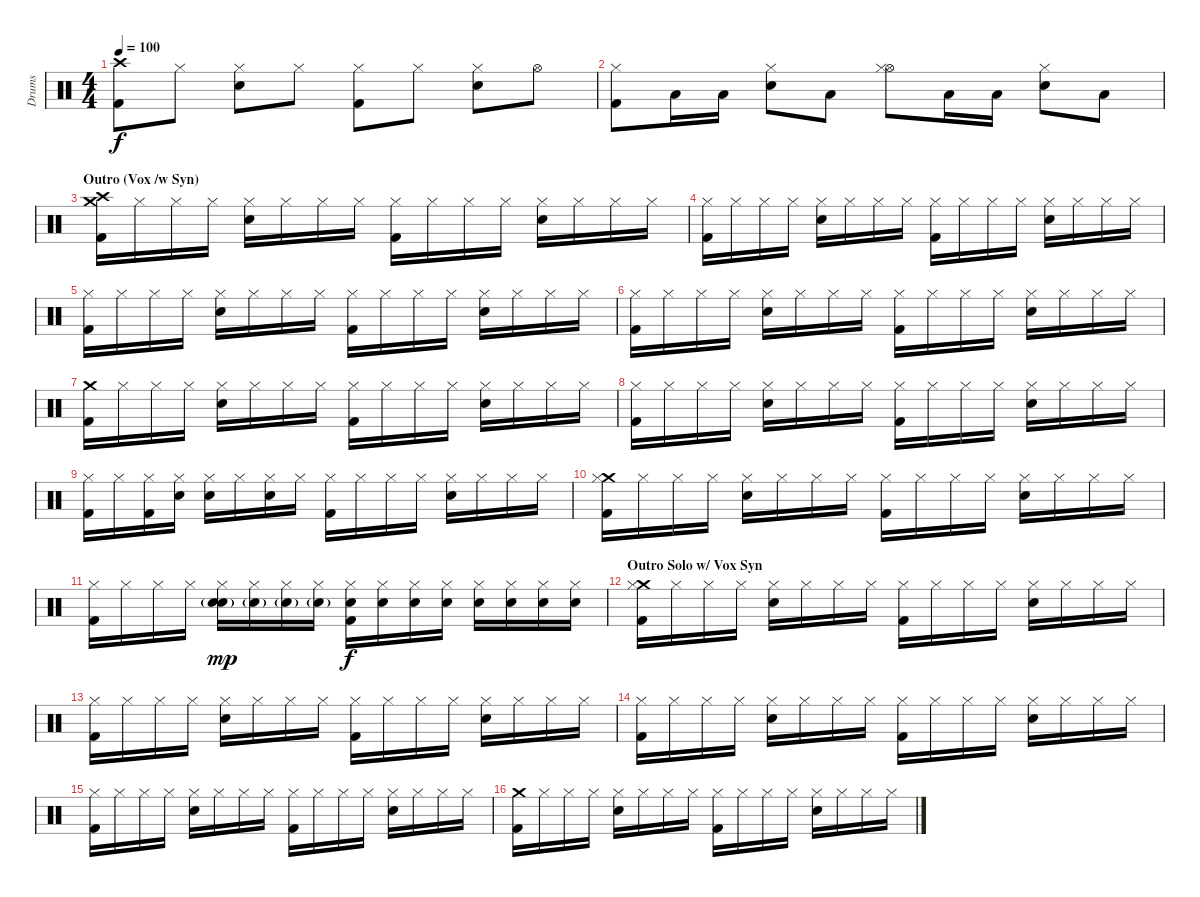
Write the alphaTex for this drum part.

\track ("Drums" "Drums") {instrument percussion}
\staff {score}
\articulation defaults
\ts (4 4)
\tempo 100
\clef neutral
\ks c
("Kick (hit) 2" "Crash high (hit)").8{dy f} "Hi-Hat (closed)".8 ("Snare (hit) 2" "Hi-Hat (closed)").8 "Hi-Hat (closed)".8 ("Kick (hit) 2" "Hi-Hat (closed)").8 "Hi-Hat (closed)".8 ("Snare (hit) 2" "Hi-Hat (closed)").8 "Hi-Hat (open)".8 |
("Kick (hit) 2" "Hi-Hat (closed)").8 "Low Tom (hit)".16 "Low Tom (hit)".16 ("Snare (hit) 2" "Hi-Hat (closed)").8 "Low Tom (hit)".8 ("Hi-Hat (open)" "Hi-Hat (closed)").8 "Low Tom (hit)".16 "Low Tom (hit)".16 ("Snare (hit) 2" "Hi-Hat (closed)").8 "Low Tom (hit)".8 |
\section ("" "Outro (Vox /w Syn)")
("Crash medium (hit)" "Crash high (hit)" "Kick (hit) 2").16 "Hi-Hat (closed)".16 "Hi-Hat (closed)".16 "Hi-Hat (closed)".16 ("Hi-Hat (closed)" "Snare (hit) 2").16 "Hi-Hat (closed)".16 "Hi-Hat (closed)".16 "Hi-Hat (closed)".16 ("Hi-Hat (closed)" "Kick (hit) 2").16 "Hi-Hat (closed)".16 "Hi-Hat (closed)".16 "Hi-Hat (closed)".16 ("Hi-Hat (closed)" "Snare (hit) 2").16 "Hi-Hat (closed)".16 "Hi-Hat (closed)".16 "Hi-Hat (closed)".16 |
("Hi-Hat (closed)" "Kick (hit) 2").16 "Hi-Hat (closed)".16 "Hi-Hat (closed)".16 "Hi-Hat (closed)".16 ("Hi-Hat (closed)" "Snare (hit) 2").16 "Hi-Hat (closed)".16 "Hi-Hat (closed)".16 "Hi-Hat (closed)".16 ("Hi-Hat (closed)" "Kick (hit) 2").16 "Hi-Hat (closed)".16 "Hi-Hat (closed)".16 "Hi-Hat (closed)".16 ("Hi-Hat (closed)" "Snare (hit) 2").16 "Hi-Hat (closed)".16 "Hi-Hat (closed)".16 "Hi-Hat (closed)".16 |
("Hi-Hat (closed)" "Kick (hit) 2").16 "Hi-Hat (closed)".16 "Hi-Hat (closed)".16 "Hi-Hat (closed)".16 ("Hi-Hat (closed)" "Snare (hit) 2").16 "Hi-Hat (closed)".16 "Hi-Hat (closed)".16 "Hi-Hat (closed)".16 ("Hi-Hat (closed)" "Kick (hit) 2").16 "Hi-Hat (closed)".16 "Hi-Hat (closed)".16 "Hi-Hat (closed)".16 ("Hi-Hat (closed)" "Snare (hit) 2").16 "Hi-Hat (closed)".16 "Hi-Hat (closed)".16 "Hi-Hat (closed)".16 |
("Hi-Hat (closed)" "Kick (hit) 2").16 "Hi-Hat (closed)".16 "Hi-Hat (closed)".16 "Hi-Hat (closed)".16 ("Hi-Hat (closed)" "Snare (hit) 2").16 "Hi-Hat (closed)".16 "Hi-Hat (closed)".16 "Hi-Hat (closed)".16 ("Hi-Hat (closed)" "Kick (hit) 2").16 "Hi-Hat (closed)".16 "Hi-Hat (closed)".16 "Hi-Hat (closed)".16 ("Hi-Hat (closed)" "Snare (hit) 2").16 "Hi-Hat (closed)".16 "Hi-Hat (closed)".16 "Hi-Hat (closed)".16 |
("Crash medium (hit)" "Kick (hit) 2").16 "Hi-Hat (closed)".16 "Hi-Hat (closed)".16 "Hi-Hat (closed)".16 ("Hi-Hat (closed)" "Snare (hit) 2").16 "Hi-Hat (closed)".16 "Hi-Hat (closed)".16 "Hi-Hat (closed)".16 ("Hi-Hat (closed)" "Kick (hit) 2").16 "Hi-Hat (closed)".16 "Hi-Hat (closed)".16 "Hi-Hat (closed)".16 ("Hi-Hat (closed)" "Snare (hit) 2").16 "Hi-Hat (closed)".16 "Hi-Hat (closed)".16 "Hi-Hat (closed)".16 |
("Hi-Hat (closed)" "Kick (hit) 2").16 "Hi-Hat (closed)".16 "Hi-Hat (closed)".16 "Hi-Hat (closed)".16 ("Hi-Hat (closed)" "Snare (hit) 2").16 "Hi-Hat (closed)".16 "Hi-Hat (closed)".16 "Hi-Hat (closed)".16 ("Hi-Hat (closed)" "Kick (hit) 2").16 "Hi-Hat (closed)".16 "Hi-Hat (closed)".16 "Hi-Hat (closed)".16 ("Hi-Hat (closed)" "Snare (hit) 2").16 "Hi-Hat (closed)".16 "Hi-Hat (closed)".16 "Hi-Hat (closed)".16 |
("Hi-Hat (closed)" "Kick (hit) 2").16 "Hi-Hat (closed)".16 ("Hi-Hat (closed)" "Kick (hit) 2").16 ("Hi-Hat (closed)" "Snare (hit) 2").16 ("Hi-Hat (closed)" "Snare (hit) 2").16 "Hi-Hat (closed)".16 ("Hi-Hat (closed)" "Snare (hit) 2").16 "Hi-Hat (closed)".16 ("Hi-Hat (closed)" "Kick (hit) 2").16 "Hi-Hat (closed)".16 "Hi-Hat (closed)".16 "Hi-Hat (closed)".16 ("Hi-Hat (closed)" "Snare (hit) 2").16 "Hi-Hat (closed)".16 "Hi-Hat (closed)".16 "Hi-Hat (closed)".16 |
("Crash medium (hit)" "Hi-Hat (closed)" "Kick (hit) 2").16 "Hi-Hat (closed)".16 "Hi-Hat (closed)".16 "Hi-Hat (closed)".16 ("Hi-Hat (closed)" "Snare (hit) 2").16 "Hi-Hat (closed)".16 "Hi-Hat (closed)".16 "Hi-Hat (closed)".16 ("Hi-Hat (closed)" "Kick (hit) 2").16 "Hi-Hat (closed)".16 "Hi-Hat (closed)".16 "Hi-Hat (closed)".16 ("Hi-Hat (closed)" "Snare (hit) 2").16 "Hi-Hat (closed)".16 "Hi-Hat (closed)".16 "Hi-Hat (closed)".16 |
("Hi-Hat (closed)" "Kick (hit) 2").16 "Hi-Hat (closed)".16 "Hi-Hat (closed)".16 "Hi-Hat (closed)".16 ("Snare (hit) 2"{g} "Hi-Hat (closed)" "Snare (hit) 2").16{dy mp} ("Snare (hit) 2"{g} "Hi-Hat (closed)").16 ("Snare (hit) 2"{g} "Hi-Hat (closed)").16 ("Snare (hit) 2"{g} "Hi-Hat (closed)").16 ("Snare (hit) 2" "Hi-Hat (closed)" "Kick (hit) 2").16{dy f} ("Snare (hit) 2" "Hi-Hat (closed)").16 ("Snare (hit) 2" "Hi-Hat (closed)").16 ("Snare (hit) 2" "Hi-Hat (closed)").16 ("Snare (hit) 2" "Hi-Hat (closed)").16 ("Snare (hit) 2" "Hi-Hat (closed)").16 ("Snare (hit) 2" "Hi-Hat (closed)").16 ("Snare (hit) 2" "Hi-Hat (closed)").16 |
\section ("" "Outro Solo w/ Vox Syn")
("Crash medium (hit)" "Hi-Hat (closed)" "Kick (hit) 2").16 "Hi-Hat (closed)".16 "Hi-Hat (closed)".16 "Hi-Hat (closed)".16 ("Hi-Hat (closed)" "Snare (hit) 2").16 "Hi-Hat (closed)".16 "Hi-Hat (closed)".16 "Hi-Hat (closed)".16 ("Hi-Hat (closed)" "Kick (hit) 2").16 "Hi-Hat (closed)".16 "Hi-Hat (closed)".16 "Hi-Hat (closed)".16 ("Hi-Hat (closed)" "Snare (hit) 2").16 "Hi-Hat (closed)".16 "Hi-Hat (closed)".16 "Hi-Hat (closed)".16 |
("Hi-Hat (closed)" "Kick (hit) 2").16 "Hi-Hat (closed)".16 "Hi-Hat (closed)".16 "Hi-Hat (closed)".16 ("Hi-Hat (closed)" "Snare (hit) 2").16 "Hi-Hat (closed)".16 "Hi-Hat (closed)".16 "Hi-Hat (closed)".16 ("Hi-Hat (closed)" "Kick (hit) 2").16 "Hi-Hat (closed)".16 "Hi-Hat (closed)".16 "Hi-Hat (closed)".16 ("Hi-Hat (closed)" "Snare (hit) 2").16 "Hi-Hat (closed)".16 "Hi-Hat (closed)".16 "Hi-Hat (closed)".16 |
("Hi-Hat (closed)" "Kick (hit) 2").16 "Hi-Hat (closed)".16 "Hi-Hat (closed)".16 "Hi-Hat (closed)".16 ("Hi-Hat (closed)" "Snare (hit) 2").16 "Hi-Hat (closed)".16 "Hi-Hat (closed)".16 "Hi-Hat (closed)".16 ("Hi-Hat (closed)" "Kick (hit) 2").16 "Hi-Hat (closed)".16 "Hi-Hat (closed)".16 "Hi-Hat (closed)".16 ("Hi-Hat (closed)" "Snare (hit) 2").16 "Hi-Hat (closed)".16 "Hi-Hat (closed)".16 "Hi-Hat (closed)".16 |
("Hi-Hat (closed)" "Kick (hit) 2").16 "Hi-Hat (closed)".16 "Hi-Hat (closed)".16 "Hi-Hat (closed)".16 ("Hi-Hat (closed)" "Snare (hit) 2").16 "Hi-Hat (closed)".16 "Hi-Hat (closed)".16 "Hi-Hat (closed)".16 ("Hi-Hat (closed)" "Kick (hit) 2").16 "Hi-Hat (closed)".16 "Hi-Hat (closed)".16 "Hi-Hat (closed)".16 ("Hi-Hat (closed)" "Snare (hit) 2").16 "Hi-Hat (closed)".16 "Hi-Hat (closed)".16 "Hi-Hat (closed)".16 |
("Crash medium (hit)" "Kick (hit) 2").16 "Hi-Hat (closed)".16 "Hi-Hat (closed)".16 "Hi-Hat (closed)".16 ("Hi-Hat (closed)" "Snare (hit) 2").16 "Hi-Hat (closed)".16 "Hi-Hat (closed)".16 "Hi-Hat (closed)".16 ("Hi-Hat (closed)" "Kick (hit) 2").16 "Hi-Hat (closed)".16 "Hi-Hat (closed)".16 "Hi-Hat (closed)".16 ("Hi-Hat (closed)" "Snare (hit) 2").16 "Hi-Hat (closed)".16 "Hi-Hat (closed)".16 "Hi-Hat (closed)".16
